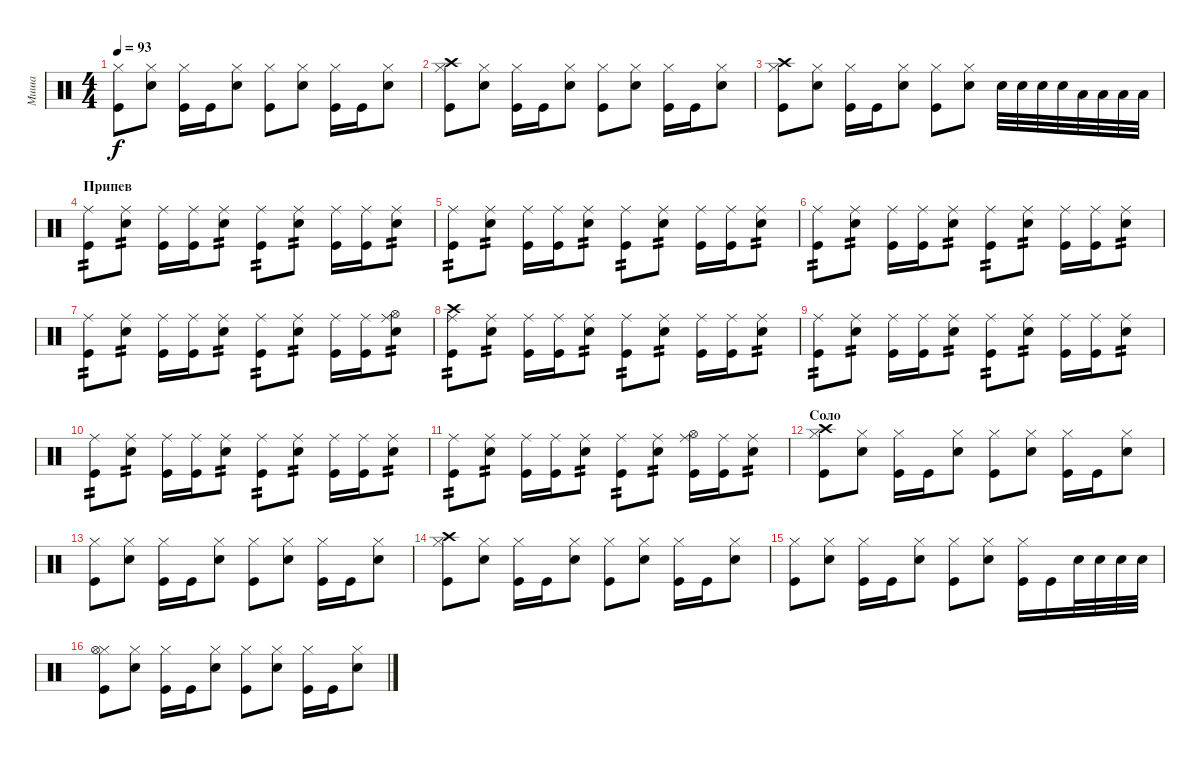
\track ("Миша" "Миша") {instrument percussion}
\staff {score}
\articulation defaults
\ts (4 4)
\tempo 93
\clef neutral
\ks c
("Kick (hit)" "Hi-Hat (closed)").8{dy f} ("Electric Snare (hit)" "Hi-Hat (closed)").8 ("Kick (hit)" "Hi-Hat (closed)").16 "Kick (hit)".16 ("Electric Snare (hit)" "Hi-Hat (closed)").8 ("Kick (hit)" "Hi-Hat (closed)").8 ("Electric Snare (hit)" "Hi-Hat (closed)").8 ("Kick (hit)" "Hi-Hat (closed)").16 "Kick (hit)".16 ("Electric Snare (hit)" "Hi-Hat (closed)").8 |
("Kick (hit)" "Hi-Hat (closed)" "Crash high (hit)").8 ("Electric Snare (hit)" "Hi-Hat (closed)").8 ("Kick (hit)" "Hi-Hat (closed)").16 "Kick (hit)".16 ("Electric Snare (hit)" "Hi-Hat (closed)").8 ("Kick (hit)" "Hi-Hat (closed)").8 ("Electric Snare (hit)" "Hi-Hat (closed)").8 ("Kick (hit)" "Hi-Hat (closed)").16 "Kick (hit)".16 ("Electric Snare (hit)" "Hi-Hat (closed)").8 |
("Kick (hit)" "Hi-Hat (closed)" "Crash high (hit)").8 ("Electric Snare (hit)" "Hi-Hat (closed)").8 ("Kick (hit)" "Hi-Hat (closed)").16 "Kick (hit)".16 ("Electric Snare (hit)" "Hi-Hat (closed)").8 ("Kick (hit)" "Hi-Hat (closed)").8 ("Electric Snare (hit)" "Hi-Hat (closed)").8 "Electric Snare (hit)".32 "Electric Snare (hit)".32 "Electric Snare (hit)".32 "Electric Snare (hit)".32 "Low Tom (hit)".32 "Low Tom (hit)".32 "Low Tom (hit)".32 "Low Tom (hit)".32 |
\section ("" "Припев")
("Kick (hit)" "Ride (middle)").8{tp 2} ("Electric Snare (hit)" "Ride (middle)").8{tp 2} ("Kick (hit)" "Ride (middle)").16 ("Kick (hit)" "Ride (middle)").16 ("Electric Snare (hit)" "Ride (middle)").8{tp 2} ("Kick (hit)" "Ride (middle)").8{tp 2} ("Electric Snare (hit)" "Ride (middle)").8{tp 2} ("Kick (hit)" "Ride (middle)").16 ("Kick (hit)" "Ride (middle)").16 ("Electric Snare (hit)" "Ride (middle)").8{tp 2} |
("Kick (hit)" "Ride (middle)").8{tp 2} ("Electric Snare (hit)" "Ride (middle)").8{tp 2} ("Kick (hit)" "Ride (middle)").16 ("Kick (hit)" "Ride (middle)").16 ("Electric Snare (hit)" "Ride (middle)").8{tp 2} ("Kick (hit)" "Ride (middle)").8{tp 2} ("Electric Snare (hit)" "Ride (middle)").8{tp 2} ("Kick (hit)" "Ride (middle)").16 ("Kick (hit)" "Ride (middle)").16 ("Electric Snare (hit)" "Ride (middle)").8{tp 2} |
("Kick (hit)" "Ride (middle)").8{tp 2} ("Electric Snare (hit)" "Ride (middle)").8{tp 2} ("Kick (hit)" "Ride (middle)").16 ("Kick (hit)" "Ride (middle)").16 ("Electric Snare (hit)" "Ride (middle)").8{tp 2} ("Kick (hit)" "Ride (middle)").8{tp 2} ("Electric Snare (hit)" "Ride (middle)").8{tp 2} ("Kick (hit)" "Ride (middle)").16 ("Kick (hit)" "Ride (middle)").16 ("Electric Snare (hit)" "Ride (middle)").8{tp 2} |
("Kick (hit)" "Ride (middle)").8{tp 2} ("Electric Snare (hit)" "Ride (middle)").8{tp 2} ("Kick (hit)" "Ride (middle)").16 ("Kick (hit)" "Ride (middle)").16 ("Electric Snare (hit)" "Ride (middle)").8{tp 2} ("Kick (hit)" "Ride (middle)").8{tp 2} ("Electric Snare (hit)" "Ride (middle)").8{tp 2} ("Kick (hit)" "Ride (middle)").16 ("Kick (hit)" "Ride (middle)").16 ("Electric Snare (hit)" "Ride (middle)" "Hi-Hat (open)").8{tp 2} |
("Kick (hit)" "Ride (middle)" "Crash high (hit)").8{tp 2} ("Electric Snare (hit)" "Ride (middle)").8{tp 2} ("Kick (hit)" "Ride (middle)").16 ("Kick (hit)" "Ride (middle)").16 ("Electric Snare (hit)" "Ride (middle)").8{tp 2} ("Kick (hit)" "Ride (middle)").8{tp 2} ("Electric Snare (hit)" "Ride (middle)").8{tp 2} ("Kick (hit)" "Ride (middle)").16 ("Kick (hit)" "Ride (middle)").16 ("Electric Snare (hit)" "Ride (middle)").8{tp 2} |
("Kick (hit)" "Ride (middle)").8{tp 2} ("Electric Snare (hit)" "Ride (middle)").8{tp 2} ("Kick (hit)" "Ride (middle)").16 ("Kick (hit)" "Ride (middle)").16 ("Electric Snare (hit)" "Ride (middle)").8{tp 2} ("Kick (hit)" "Ride (middle)").8{tp 2} ("Electric Snare (hit)" "Ride (middle)").8{tp 2} ("Kick (hit)" "Ride (middle)").16 ("Kick (hit)" "Ride (middle)").16 ("Electric Snare (hit)" "Ride (middle)").8{tp 2} |
("Kick (hit)" "Ride (middle)").8{tp 2} ("Electric Snare (hit)" "Ride (middle)").8{tp 2} ("Kick (hit)" "Ride (middle)").16 ("Kick (hit)" "Ride (middle)").16 ("Electric Snare (hit)" "Ride (middle)").8{tp 2} ("Kick (hit)" "Ride (middle)").8{tp 2} ("Electric Snare (hit)" "Ride (middle)").8{tp 2} ("Kick (hit)" "Ride (middle)").16 ("Kick (hit)" "Ride (middle)").16 ("Electric Snare (hit)" "Ride (middle)").8{tp 2} |
("Kick (hit)" "Ride (middle)").8{tp 2} ("Electric Snare (hit)" "Ride (middle)").8{tp 2} ("Kick (hit)" "Ride (middle)").16 ("Kick (hit)" "Ride (middle)").16 ("Electric Snare (hit)" "Ride (middle)").8{tp 2} ("Kick (hit)" "Ride (middle)").8{tp 2} ("Electric Snare (hit)" "Ride (middle)").8{tp 2} ("Kick (hit)" "Ride (middle)" "Hi-Hat (open)").16 ("Kick (hit)" "Ride (middle)").16 ("Electric Snare (hit)" "Ride (middle)").8{tp 2} |
\section ("" "Соло")
("Kick (hit)" "Hi-Hat (closed)" "Crash high (hit)").8 ("Electric Snare (hit)" "Hi-Hat (closed)").8 ("Kick (hit)" "Hi-Hat (closed)").16 "Kick (hit)".16 ("Electric Snare (hit)" "Hi-Hat (closed)").8 ("Kick (hit)" "Hi-Hat (closed)").8 ("Electric Snare (hit)" "Hi-Hat (closed)").8 ("Kick (hit)" "Hi-Hat (closed)").16 "Kick (hit)".16 ("Electric Snare (hit)" "Hi-Hat (closed)").8 |
("Kick (hit)" "Hi-Hat (closed)").8 ("Electric Snare (hit)" "Hi-Hat (closed)").8 ("Kick (hit)" "Hi-Hat (closed)").16 "Kick (hit)".16 ("Electric Snare (hit)" "Hi-Hat (closed)").8 ("Kick (hit)" "Hi-Hat (closed)").8 ("Electric Snare (hit)" "Hi-Hat (closed)").8 ("Kick (hit)" "Hi-Hat (closed)").16 "Kick (hit)".16 ("Electric Snare (hit)" "Hi-Hat (closed)").8 |
("Kick (hit)" "Hi-Hat (closed)" "Crash high (hit)").8 ("Electric Snare (hit)" "Hi-Hat (closed)").8 ("Kick (hit)" "Hi-Hat (closed)").16 "Kick (hit)".16 ("Electric Snare (hit)" "Hi-Hat (closed)").8 ("Kick (hit)" "Hi-Hat (closed)").8 ("Electric Snare (hit)" "Hi-Hat (closed)").8 ("Kick (hit)" "Hi-Hat (closed)").16 "Kick (hit)".16 ("Electric Snare (hit)" "Hi-Hat (closed)").8 |
("Kick (hit)" "Hi-Hat (closed)").8 ("Electric Snare (hit)" "Hi-Hat (closed)").8 ("Kick (hit)" "Hi-Hat (closed)").16 "Kick (hit)".16 ("Electric Snare (hit)" "Hi-Hat (closed)").8 ("Kick (hit)" "Hi-Hat (closed)").8 ("Electric Snare (hit)" "Hi-Hat (closed)").8 ("Kick (hit)" "Hi-Hat (closed)").16 "Kick (hit)".16 "Electric Snare (hit)".32 "Electric Snare (hit)".32 "Electric Snare (hit)".32 "Electric Snare (hit)".32 |
("Kick (hit)" "Hi-Hat (closed)" "Hi-Hat (open)").8 ("Electric Snare (hit)" "Hi-Hat (closed)").8 ("Kick (hit)" "Hi-Hat (closed)").16 "Kick (hit)".16 ("Electric Snare (hit)" "Hi-Hat (closed)").8 ("Kick (hit)" "Hi-Hat (closed)").8 ("Electric Snare (hit)" "Hi-Hat (closed)").8 ("Kick (hit)" "Hi-Hat (closed)").16 "Kick (hit)".16 ("Electric Snare (hit)" "Hi-Hat (closed)").8
